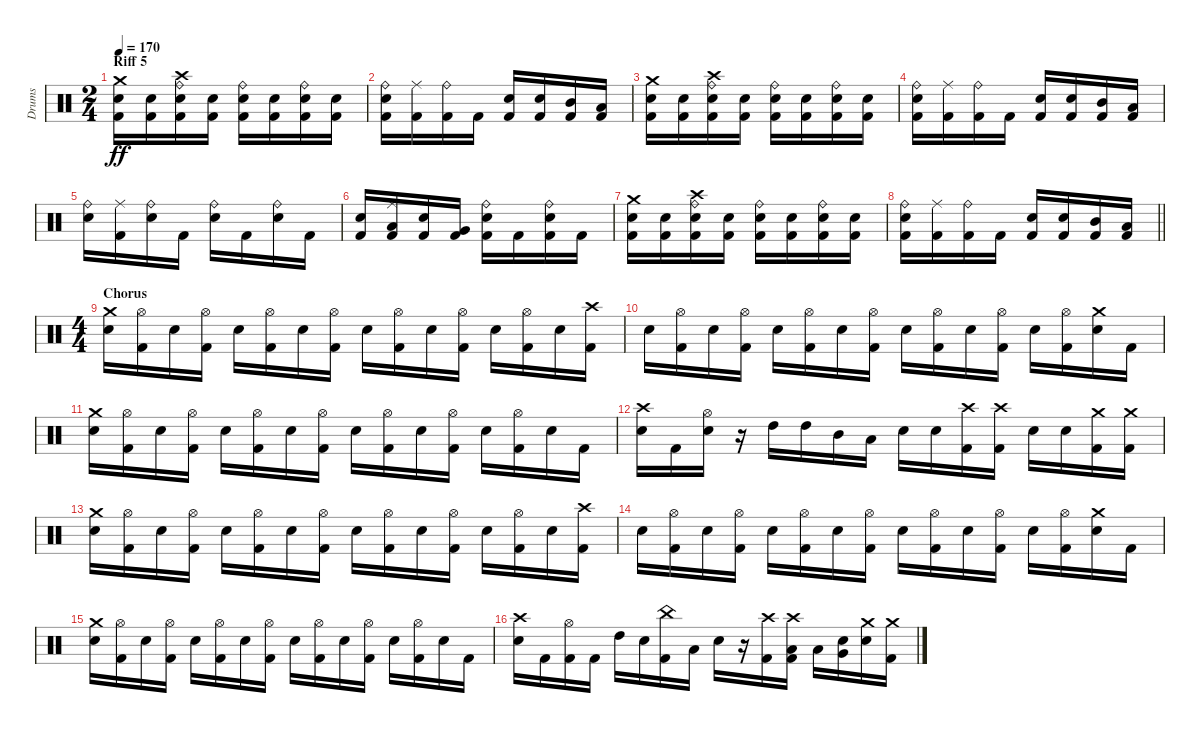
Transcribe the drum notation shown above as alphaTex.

\track ("Drums" "Drums") {instrument percussion}
\staff {score}
\articulation defaults
\ts (2 4)
\section ("" "Riff 5")
\tempo 170
\clef neutral
\ks c
("Crash medium (hit)" "Kick (hit) 2" "Snare (hit) 2").16{dy ff} ("Kick (hit) 2" "Snare (hit) 2").16 ("Crash high (hit)" "Kick (hit) 2" "Snare (hit) 2" "Ride (bell)").16 ("Kick (hit) 2" "Snare (hit) 2").16 ("Kick (hit) 2" "Snare (hit) 2" "Ride (bell)").16 ("Kick (hit) 2" "Snare (hit) 2").16 ("Kick (hit) 2" "Snare (hit) 2" "Ride (bell)").16 ("Kick (hit) 2" "Snare (hit) 2").16 |
("Kick (hit) 2" "Snare (hit) 2" "Ride (bell)").16 ("Kick (hit) 2" "Ride (middle)").16 ("Kick (hit) 2" "Ride (bell)").16 "Kick (hit) 2".16 ("Kick (hit) 2" "Snare (hit) 2").16 ("Kick (hit) 2" "Snare (hit) 2").16 ("Kick (hit) 2" "Mid Tom (hit)").16 ("Kick (hit) 2" "Low Tom (hit)").16 |
("Crash medium (hit)" "Kick (hit) 2" "Snare (hit) 2").16 ("Kick (hit) 2" "Snare (hit) 2").16 ("Crash high (hit)" "Kick (hit) 2" "Snare (hit) 2" "Ride (bell)").16 ("Kick (hit) 2" "Snare (hit) 2").16 ("Kick (hit) 2" "Snare (hit) 2" "Ride (bell)").16 ("Kick (hit) 2" "Snare (hit) 2").16 ("Kick (hit) 2" "Snare (hit) 2" "Ride (bell)").16 ("Kick (hit) 2" "Snare (hit) 2").16 |
("Kick (hit) 2" "Snare (hit) 2" "Ride (bell)").16 ("Kick (hit) 2" "Ride (middle)").16 ("Kick (hit) 2" "Ride (bell)").16 "Kick (hit) 2".16 ("Kick (hit) 2" "Snare (hit) 2").16 ("Kick (hit) 2" "Snare (hit) 2").16 ("Kick (hit) 2" "Mid Tom (hit)").16 ("Kick (hit) 2" "Low Tom (hit)").16 |
("Snare (hit) 2" "Ride (bell)").16 ("Kick (hit) 2" "Ride (middle)").16 ("Snare (hit) 2" "Ride (bell)").16 "Kick (hit) 2".16 ("Snare (hit) 2" "Ride (bell)").16 "Kick (hit) 2".16 ("Snare (hit) 2" "Ride (bell)").16 "Kick (hit) 2".16 |
("Kick (hit) 2" "Snare (hit) 2").16 ("Kick (hit) 2" "Low Tom (hit)" "Ride (middle)").16 ("Kick (hit) 2" "Snare (hit) 2").16 ("Kick (hit) 2" "Very Low Tom (hit)").16 ("Kick (hit) 2" "Snare (hit) 2" "Ride (bell)").16 "Kick (hit) 2".16 ("Kick (hit) 2" "Snare (hit) 2" "Ride (bell)").16 "Kick (hit) 2".16 |
("Crash medium (hit)" "Kick (hit) 2" "Snare (hit) 2").16 ("Kick (hit) 2" "Snare (hit) 2").16 ("Crash high (hit)" "Kick (hit) 2" "Snare (hit) 2" "Ride (bell)").16 ("Kick (hit) 2" "Snare (hit) 2").16 ("Kick (hit) 2" "Snare (hit) 2" "Ride (bell)").16 ("Kick (hit) 2" "Snare (hit) 2").16 ("Kick (hit) 2" "Snare (hit) 2" "Ride (bell)").16 ("Kick (hit) 2" "Snare (hit) 2").16 |
\barLineRight lightlight
("Kick (hit) 2" "Snare (hit) 2" "Ride (bell)").16 ("Kick (hit) 2" "Ride (middle)").16 ("Kick (hit) 2" "Ride (bell)").16 "Kick (hit) 2".16 ("Kick (hit) 2" "Snare (hit) 2").16 ("Kick (hit) 2" "Snare (hit) 2").16 ("Kick (hit) 2" "Mid Tom (hit)").16 ("Kick (hit) 2" "Low Tom (hit)").16 |
\ts (4 4)
\section ("" "Chorus")
("Crash medium (hit)" "Snare (hit) 2").16 ("Hi-Hat (open)" "Kick (hit) 2").16 "Snare (hit) 2".16 ("Hi-Hat (open)" "Kick (hit) 2").16 "Snare (hit) 2".16 ("Hi-Hat (open)" "Kick (hit) 2").16 "Snare (hit) 2".16 ("Hi-Hat (open)" "Kick (hit) 2").16 "Snare (hit) 2".16 ("Hi-Hat (open)" "Kick (hit) 2").16 "Snare (hit) 2".16 ("Hi-Hat (open)" "Kick (hit) 2").16 "Snare (hit) 2".16 ("Hi-Hat (open)" "Kick (hit) 2").16 "Snare (hit) 2".16 ("Crash high (hit)" "Kick (hit) 2").16 |
"Snare (hit) 2".16 ("Hi-Hat (open)" "Kick (hit) 2").16 "Snare (hit) 2".16 ("Hi-Hat (open)" "Kick (hit) 2").16 "Snare (hit) 2".16 ("Hi-Hat (open)" "Kick (hit) 2").16 "Snare (hit) 2".16 ("Hi-Hat (open)" "Kick (hit) 2").16 "Snare (hit) 2".16 ("Hi-Hat (open)" "Kick (hit) 2").16 "Snare (hit) 2".16 ("Hi-Hat (open)" "Kick (hit) 2").16 "Snare (hit) 2".16 ("Hi-Hat (open)" "Kick (hit) 2").16 ("Crash medium (hit)" "Snare (hit) 2").16 "Kick (hit) 2".16 |
("Crash medium (hit)" "Snare (hit) 2").16 ("Hi-Hat (open)" "Kick (hit) 2").16 "Snare (hit) 2".16 ("Hi-Hat (open)" "Kick (hit) 2").16 "Snare (hit) 2".16 ("Hi-Hat (open)" "Kick (hit) 2").16 "Snare (hit) 2".16 ("Hi-Hat (open)" "Kick (hit) 2").16 "Snare (hit) 2".16 ("Hi-Hat (open)" "Kick (hit) 2").16 "Snare (hit) 2".16 ("Hi-Hat (open)" "Kick (hit) 2").16 "Snare (hit) 2".16 ("Hi-Hat (open)" "Kick (hit) 2").16 "Snare (hit) 2".16 "Kick (hit) 2".16 |
("Crash high (hit)" "Snare (hit) 2").16 "Kick (hit) 2".16 ("Hi-Hat (open)" "Snare (hit) 2").16 r.16 "High Tom (hit)".16 "High Tom (hit)".16 "Mid Tom (hit)".16 "Low Tom (hit)".16 "Snare (hit) 2".16 "Snare (hit) 2".16 ("Crash high (hit)" "Kick (hit) 2").16 ("Crash high (hit)" "Kick (hit) 2").16 "Snare (hit) 2".16 "Snare (hit) 2".16 ("Crash medium (hit)" "Kick (hit) 2").16 ("Crash medium (hit)" "Kick (hit) 2").16 |
("Crash medium (hit)" "Snare (hit) 2").16 ("Hi-Hat (open)" "Kick (hit) 2").16 "Snare (hit) 2".16 ("Hi-Hat (open)" "Kick (hit) 2").16 "Snare (hit) 2".16 ("Hi-Hat (open)" "Kick (hit) 2").16 "Snare (hit) 2".16 ("Hi-Hat (open)" "Kick (hit) 2").16 "Snare (hit) 2".16 ("Hi-Hat (open)" "Kick (hit) 2").16 "Snare (hit) 2".16 ("Hi-Hat (open)" "Kick (hit) 2").16 "Snare (hit) 2".16 ("Hi-Hat (open)" "Kick (hit) 2").16 "Snare (hit) 2".16 ("Crash high (hit)" "Kick (hit) 2").16 |
"Snare (hit) 2".16 ("Hi-Hat (open)" "Kick (hit) 2").16 "Snare (hit) 2".16 ("Hi-Hat (open)" "Kick (hit) 2").16 "Snare (hit) 2".16 ("Hi-Hat (open)" "Kick (hit) 2").16 "Snare (hit) 2".16 ("Hi-Hat (open)" "Kick (hit) 2").16 "Snare (hit) 2".16 ("Hi-Hat (open)" "Kick (hit) 2").16 "Snare (hit) 2".16 ("Hi-Hat (open)" "Kick (hit) 2").16 "Snare (hit) 2".16 ("Hi-Hat (open)" "Kick (hit) 2").16 ("Crash medium (hit)" "Snare (hit) 2").16 "Kick (hit) 2".16 |
("Crash medium (hit)" "Snare (hit) 2").16 ("Hi-Hat (open)" "Kick (hit) 2").16 "Snare (hit) 2".16 ("Hi-Hat (open)" "Kick (hit) 2").16 "Snare (hit) 2".16 ("Hi-Hat (open)" "Kick (hit) 2").16 "Snare (hit) 2".16 ("Hi-Hat (open)" "Kick (hit) 2").16 "Snare (hit) 2".16 ("Hi-Hat (open)" "Kick (hit) 2").16 "Snare (hit) 2".16 ("Hi-Hat (open)" "Kick (hit) 2").16 "Snare (hit) 2".16 ("Hi-Hat (open)" "Kick (hit) 2").16 "Snare (hit) 2".16 "Kick (hit) 2".16 |
("Crash high (hit)" "Snare (hit) 2").16 "Kick (hit) 2".16 ("Hi-Hat (open)" "Kick (hit) 2").16 "Kick (hit) 2".16 "High Tom (hit)".16 "Snare (hit) 2".16 ("China (hit)" "Kick (hit) 2").16 "Low Tom (hit)".16 "Snare (hit) 2".16 r.16 ("Crash high (hit)" "Kick (hit) 2").16 ("Crash high (hit)" "Kick (hit) 2" "Low Tom (hit)").16 "Low Tom (hit)".16 ("Snare (hit) 2" "Very Low Tom (hit)").16 ("Crash medium (hit)" "Snare (hit) 2").16 ("Crash medium (hit)" "Kick (hit) 2").16
